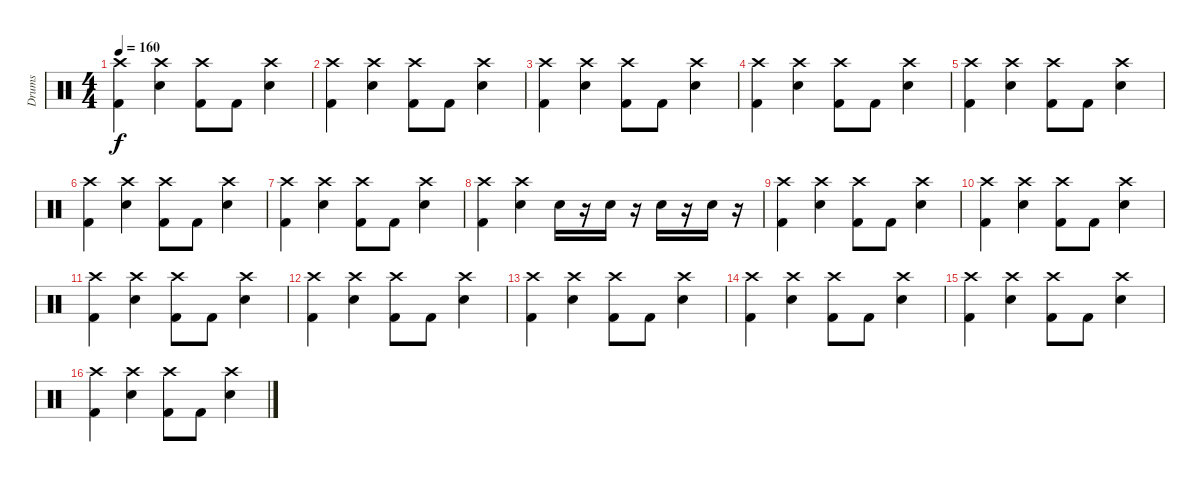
\track ("Drums" "Drums") {instrument percussion}
\staff {score}
\articulation defaults
\ts (4 4)
\tempo 160
\clef neutral
\ks c
("Kick (hit) 2" "Crash high (hit)").4{dy f} ("Electric Snare (hit)" "Crash high (hit)").4 ("Kick (hit) 2" "Crash high (hit)").8 "Kick (hit) 2".8 ("Electric Snare (hit)" "Crash high (hit)").4 |
("Kick (hit) 2" "Crash high (hit)").4 ("Electric Snare (hit)" "Crash high (hit)").4 ("Kick (hit) 2" "Crash high (hit)").8 "Kick (hit) 2".8 ("Electric Snare (hit)" "Crash high (hit)").4 |
("Kick (hit) 2" "Crash high (hit)").4 ("Electric Snare (hit)" "Crash high (hit)").4 ("Kick (hit) 2" "Crash high (hit)").8 "Kick (hit) 2".8 ("Electric Snare (hit)" "Crash high (hit)").4 |
("Kick (hit) 2" "Crash high (hit)").4 ("Electric Snare (hit)" "Crash high (hit)").4 ("Kick (hit) 2" "Crash high (hit)").8 "Kick (hit) 2".8 ("Electric Snare (hit)" "Crash high (hit)").4 |
("Kick (hit) 2" "Crash high (hit)").4 ("Electric Snare (hit)" "Crash high (hit)").4 ("Kick (hit) 2" "Crash high (hit)").8 "Kick (hit) 2".8 ("Electric Snare (hit)" "Crash high (hit)").4 |
("Kick (hit) 2" "Crash high (hit)").4 ("Electric Snare (hit)" "Crash high (hit)").4 ("Kick (hit) 2" "Crash high (hit)").8 "Kick (hit) 2".8 ("Electric Snare (hit)" "Crash high (hit)").4 |
("Kick (hit) 2" "Crash high (hit)").4 ("Electric Snare (hit)" "Crash high (hit)").4 ("Kick (hit) 2" "Crash high (hit)").8 "Kick (hit) 2".8 ("Electric Snare (hit)" "Crash high (hit)").4 |
("Kick (hit) 2" "Crash high (hit)").4 ("Electric Snare (hit)" "Crash high (hit)").4 "Electric Snare (hit)".16 r.16 "Electric Snare (hit)".16 r.16 "Electric Snare (hit)".16 r.16 "Electric Snare (hit)".16 r.16 |
("Kick (hit) 2" "Crash high (hit)").4 ("Electric Snare (hit)" "Crash high (hit)").4 ("Kick (hit) 2" "Crash high (hit)").8 "Kick (hit) 2".8 ("Electric Snare (hit)" "Crash high (hit)").4 |
("Kick (hit) 2" "Crash high (hit)").4 ("Electric Snare (hit)" "Crash high (hit)").4 ("Kick (hit) 2" "Crash high (hit)").8 "Kick (hit) 2".8 ("Electric Snare (hit)" "Crash high (hit)").4 |
("Kick (hit) 2" "Crash high (hit)").4 ("Electric Snare (hit)" "Crash high (hit)").4 ("Kick (hit) 2" "Crash high (hit)").8 "Kick (hit) 2".8 ("Electric Snare (hit)" "Crash high (hit)").4 |
("Kick (hit) 2" "Crash high (hit)").4 ("Electric Snare (hit)" "Crash high (hit)").4 ("Kick (hit) 2" "Crash high (hit)").8 "Kick (hit) 2".8 ("Electric Snare (hit)" "Crash high (hit)").4 |
("Kick (hit) 2" "Crash high (hit)").4 ("Electric Snare (hit)" "Crash high (hit)").4 ("Kick (hit) 2" "Crash high (hit)").8 "Kick (hit) 2".8 ("Electric Snare (hit)" "Crash high (hit)").4 |
("Kick (hit) 2" "Crash high (hit)").4 ("Electric Snare (hit)" "Crash high (hit)").4 ("Kick (hit) 2" "Crash high (hit)").8 "Kick (hit) 2".8 ("Electric Snare (hit)" "Crash high (hit)").4 |
("Kick (hit) 2" "Crash high (hit)").4 ("Electric Snare (hit)" "Crash high (hit)").4 ("Kick (hit) 2" "Crash high (hit)").8 "Kick (hit) 2".8 ("Electric Snare (hit)" "Crash high (hit)").4 |
("Kick (hit) 2" "Crash high (hit)").4 ("Electric Snare (hit)" "Crash high (hit)").4 ("Kick (hit) 2" "Crash high (hit)").8 "Kick (hit) 2".8 ("Electric Snare (hit)" "Crash high (hit)").4
